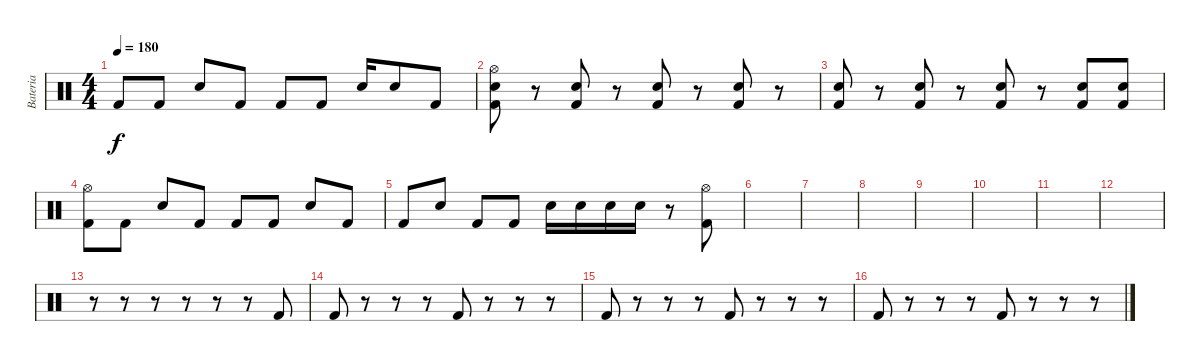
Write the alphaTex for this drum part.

\track ("Bateria" "Bateria") {instrument percussion}
\staff {score}
\articulation defaults
\ts (4 4)
\tempo 180
\clef neutral
\ks c "Kick (hit) 2".8{dy f} "Kick (hit) 2".8 "Electric Snare (hit)".8 "Kick (hit) 2".8 "Kick (hit) 2".8 "Kick (hit) 2".8 "Electric Snare (hit)".16 "Electric Snare (hit)".8 "Kick (hit) 2".8
|
("Kick (hit) 2" "Electric Snare (hit)" "Hi-Hat (open)").8 r.8 ("Kick (hit) 2" "Electric Snare (hit)").8 r.8 ("Kick (hit) 2" "Electric Snare (hit)").8 r.8 ("Kick (hit) 2" "Electric Snare (hit)").8 r.8 |
("Kick (hit) 2" "Electric Snare (hit)").8 r.8 ("Kick (hit) 2" "Electric Snare (hit)").8 r.8 ("Kick (hit) 2" "Electric Snare (hit)").8 r.8 ("Kick (hit) 2" "Electric Snare (hit)").8 ("Kick (hit) 2" "Electric Snare (hit)").8 |
("Kick (hit) 2" "Hi-Hat (open)").8 "Kick (hit) 2".8 "Electric Snare (hit)".8 "Kick (hit) 2".8 "Kick (hit) 2".8 "Kick (hit) 2".8 "Electric Snare (hit)".8 "Kick (hit) 2".8 |
"Kick (hit) 2".8 "Electric Snare (hit)".8 "Kick (hit) 2".8 "Kick (hit) 2".8 "Electric Snare (hit)".16 "Electric Snare (hit)".16 "Electric Snare (hit)".16 "Electric Snare (hit)".16 r.8 ("Kick (hit) 2" "Hi-Hat (open)").8 |
|
|
|
|
|
|
|
r.8 r.8 r.8 r.8 r.8 r.8 "Kick (hit) 2".8 |
"Kick (hit) 2".8 r.8 r.8 r.8 "Kick (hit) 2".8 r.8 r.8 r.8 |
"Kick (hit) 2".8 r.8 r.8 r.8 "Kick (hit) 2".8 r.8 r.8 r.8 |
"Kick (hit) 2".8 r.8 r.8 r.8 "Kick (hit) 2".8 r.8 r.8 r.8
